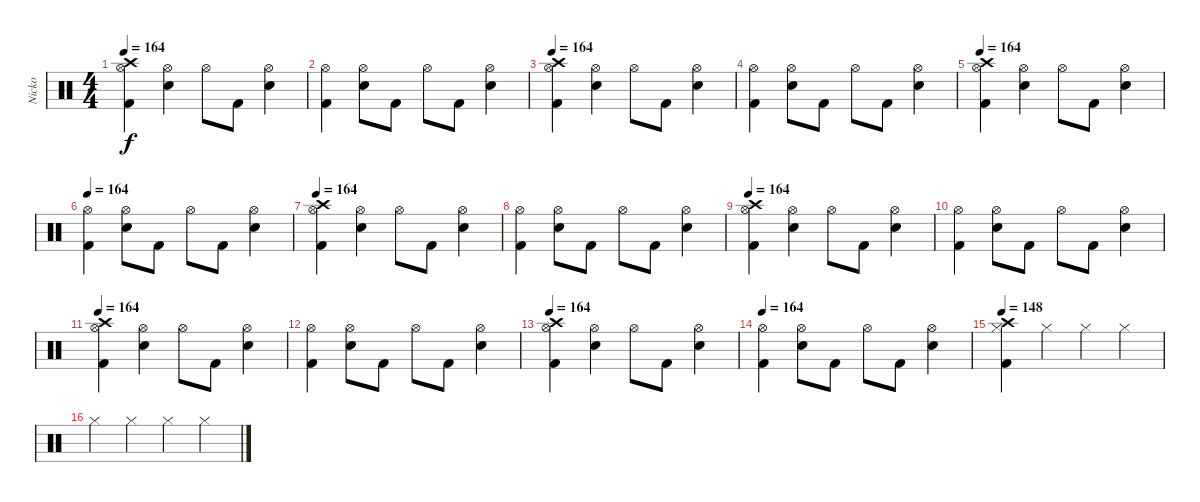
\track ("Nicko" "Nicko") {instrument percussion}
\staff {score}
\articulation defaults
\ts (4 4)
\tempo 164
\clef neutral
\ks c
("Hi-Hat (open)" "Crash high (hit)" "Kick (hit) 2").4{dy f} ("Hi-Hat (open)" "Snare (hit) 2").4 "Hi-Hat (open)".8 "Kick (hit) 2".8 ("Hi-Hat (open)" "Snare (hit) 2").4 |
("Hi-Hat (open)" "Kick (hit) 2").4 ("Hi-Hat (open)" "Snare (hit) 2").8 "Kick (hit) 2".8 "Hi-Hat (open)".8 "Kick (hit) 2".8 ("Hi-Hat (open)" "Snare (hit) 2").4 |
\tempo 164
("Hi-Hat (open)" "Crash high (hit)" "Kick (hit) 2").4 ("Hi-Hat (open)" "Snare (hit) 2").4 "Hi-Hat (open)".8 "Kick (hit) 2".8 ("Hi-Hat (open)" "Snare (hit) 2").4 |
("Hi-Hat (open)" "Kick (hit) 2").4 ("Hi-Hat (open)" "Snare (hit) 2").8 "Kick (hit) 2".8 "Hi-Hat (open)".8 "Kick (hit) 2".8 ("Hi-Hat (open)" "Snare (hit) 2").4 |
\tempo 164
("Hi-Hat (open)" "Crash high (hit)" "Kick (hit) 2").4 ("Hi-Hat (open)" "Snare (hit) 2").4 "Hi-Hat (open)".8 "Kick (hit) 2".8 ("Hi-Hat (open)" "Snare (hit) 2").4 |
\tempo 164
("Hi-Hat (open)" "Kick (hit) 2").4 ("Hi-Hat (open)" "Snare (hit) 2").8 "Kick (hit) 2".8 "Hi-Hat (open)".8 "Kick (hit) 2".8 ("Hi-Hat (open)" "Snare (hit) 2").4 |
\tempo 164
("Hi-Hat (open)" "Crash high (hit)" "Kick (hit) 2").4 ("Hi-Hat (open)" "Snare (hit) 2").4 "Hi-Hat (open)".8 "Kick (hit) 2".8 ("Hi-Hat (open)" "Snare (hit) 2").4 |
("Hi-Hat (open)" "Kick (hit) 2").4 ("Hi-Hat (open)" "Snare (hit) 2").8 "Kick (hit) 2".8 "Hi-Hat (open)".8 "Kick (hit) 2".8 ("Hi-Hat (open)" "Snare (hit) 2").4 |
\tempo 164
("Hi-Hat (open)" "Crash high (hit)" "Kick (hit) 2").4 ("Hi-Hat (open)" "Snare (hit) 2").4 "Hi-Hat (open)".8 "Kick (hit) 2".8 ("Hi-Hat (open)" "Snare (hit) 2").4 |
("Hi-Hat (open)" "Kick (hit) 2").4 ("Hi-Hat (open)" "Snare (hit) 2").8 "Kick (hit) 2".8 "Hi-Hat (open)".8 "Kick (hit) 2".8 ("Hi-Hat (open)" "Snare (hit) 2").4 |
\tempo 164
("Hi-Hat (open)" "Crash high (hit)" "Kick (hit) 2").4 ("Hi-Hat (open)" "Snare (hit) 2").4 "Hi-Hat (open)".8 "Kick (hit) 2".8 ("Hi-Hat (open)" "Snare (hit) 2").4 |
("Hi-Hat (open)" "Kick (hit) 2").4 ("Hi-Hat (open)" "Snare (hit) 2").8 "Kick (hit) 2".8 "Hi-Hat (open)".8 "Kick (hit) 2".8 ("Hi-Hat (open)" "Snare (hit) 2").4 |
\tempo 164
("Hi-Hat (open)" "Crash high (hit)" "Kick (hit) 2").4 ("Hi-Hat (open)" "Snare (hit) 2").4 "Hi-Hat (open)".8 "Kick (hit) 2".8 ("Hi-Hat (open)" "Snare (hit) 2").4 |
\tempo 164
("Hi-Hat (open)" "Kick (hit) 2").4 ("Hi-Hat (open)" "Snare (hit) 2").8 "Kick (hit) 2".8 "Hi-Hat (open)".8 "Kick (hit) 2".8 ("Hi-Hat (open)" "Snare (hit) 2").4 |
\tempo 148
("Hi-Hat (closed)" "Crash high (hit)" "Kick (hit) 2").4 "Hi-Hat (closed)".4 "Hi-Hat (closed)".4 "Hi-Hat (closed)".4 |
"Hi-Hat (closed)".4 "Hi-Hat (closed)".4 "Hi-Hat (closed)".4 "Hi-Hat (closed)".4
